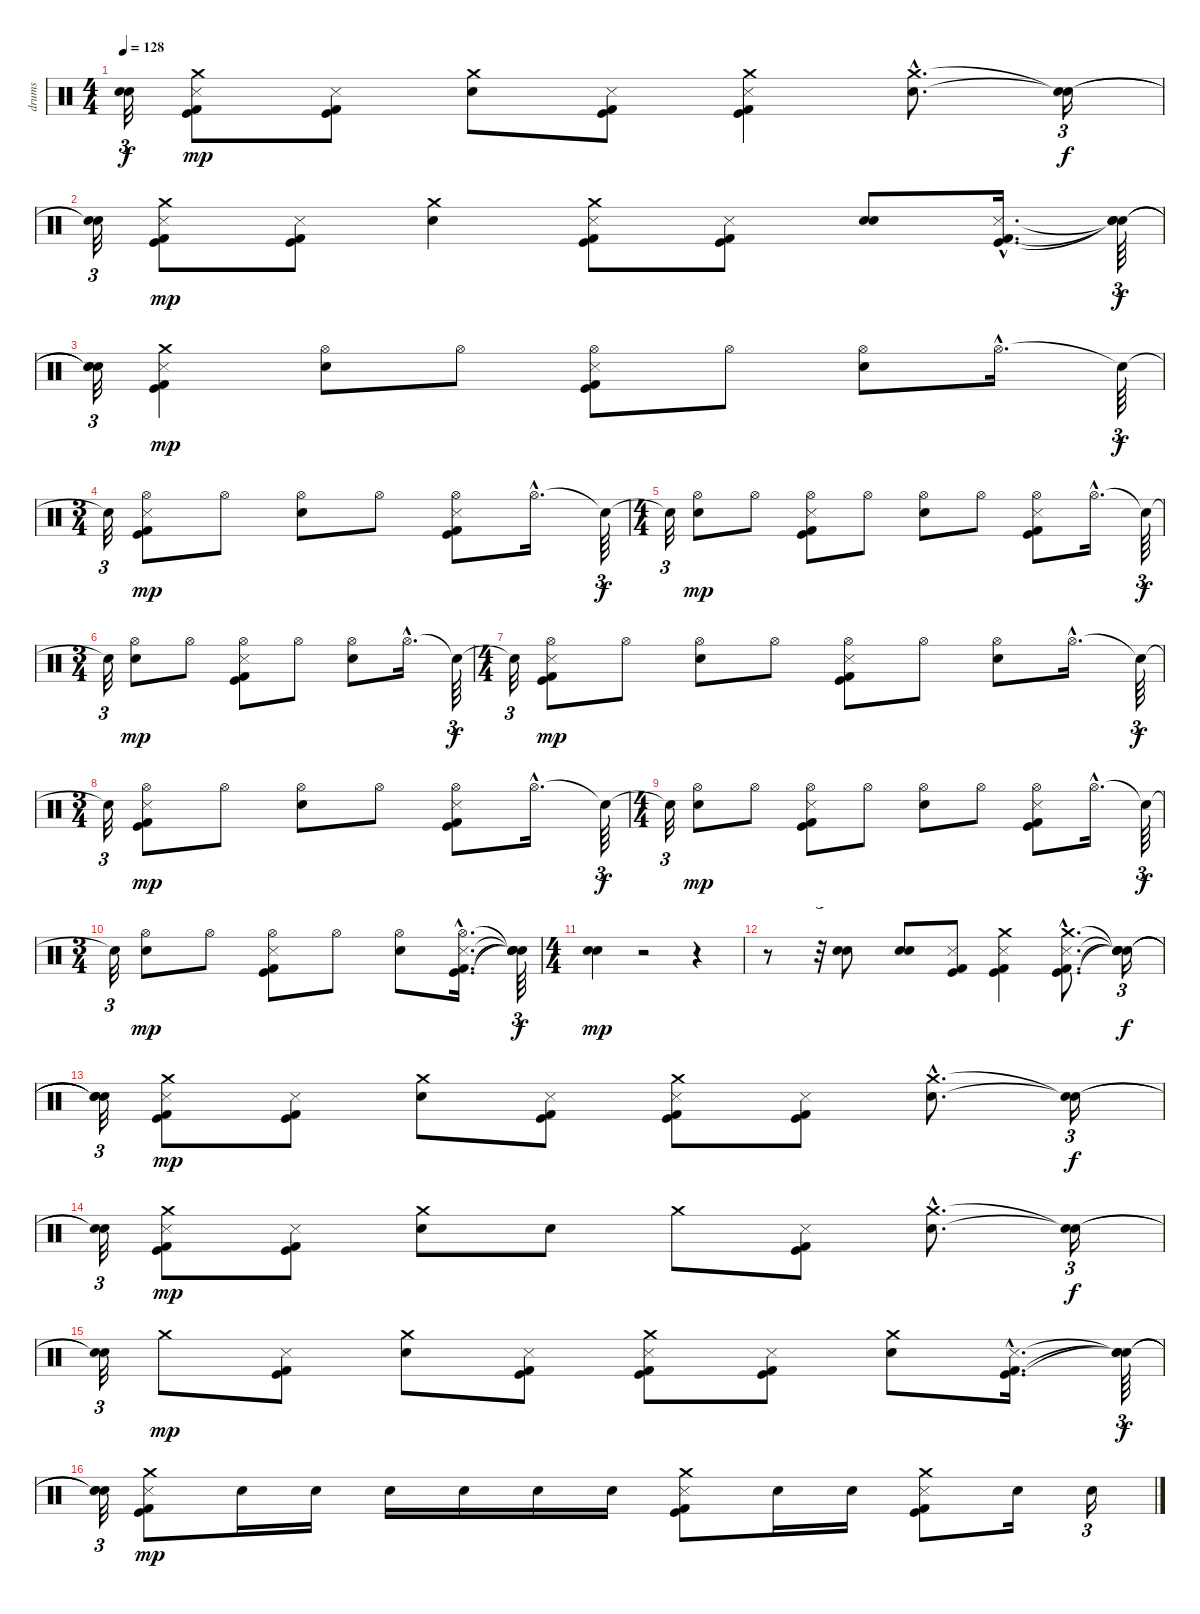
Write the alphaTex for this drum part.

\track ("drums" "drums") {instrument percussion}
\staff {score}
\articulation defaults
\ts (4 4)
\tempo 128
\clef neutral
\ks c
("Snare (hit)"{t} "Snare (hit)"{t}).32{tu (3 2) dy f} ("Crash medium (hit)" "Metronome (hit)" "Kick (hit)" "Kick (hit) 2").8{dy mp} ("Metronome (hit)" "Kick (hit)" "Kick (hit) 2").8 ("Snare (hit) 2" "Crash medium (hit)").8 ("Metronome (hit)" "Kick (hit)" "Kick (hit) 2").8 ("Crash medium (hit)" "Metronome (hit)" "Kick (hit)" "Kick (hit) 2").4 ("Snare (hit) 2"{hac} "Crash medium (hit)"{hac}).8{d} ("Snare (hit)"{t} "Snare (hit)"{t}).16{tu (3 2) dy f} |
("Snare (hit)"{t} "Snare (hit)"{t}).32{tu (3 2)} ("Crash medium (hit)" "Metronome (hit)" "Kick (hit)" "Kick (hit) 2").8{dy mp} ("Metronome (hit)" "Kick (hit)" "Kick (hit) 2").8 ("Snare (hit) 2" "Crash medium (hit)").4 ("Crash medium (hit)" "Metronome (hit)" "Kick (hit)" "Kick (hit) 2").8 ("Metronome (hit)" "Kick (hit)" "Kick (hit) 2").8 ("Snare (hit) 2" "Snare (hit) 2").8 ("Metronome (hit)"{hac} "Kick (hit)"{hac} "Kick (hit) 2"{hac}).16{d} ("Snare (hit)"{t} "Snare (hit)"{t} "Snare (hit)"{t}).64{tu (3 2) dy f} |
("Snare (hit)"{t} "Snare (hit)"{t} "Snare (hit)"{t}).32{tu (3 2)} ("Crash medium (hit)" "Metronome (hit)" "Kick (hit)" "Kick (hit) 2").4{dy mp} ("Snare (hit) 2" "Hi-Hat (open)").8 "Hi-Hat (open)".8 ("Hi-Hat (open)" "Metronome (hit)" "Kick (hit)" "Kick (hit) 2").8 "Hi-Hat (open)".8 ("Snare (hit) 2" "Hi-Hat (open)").8 "Hi-Hat (open)"{hac}.16{d} "Snare (hit)"{t}.64{tu (3 2) dy f} |
\ts (3 4)
"Snare (hit)"{t}.32{tu (3 2)} ("Hi-Hat (open)" "Metronome (hit)" "Kick (hit)" "Kick (hit) 2").8{dy mp} "Hi-Hat (open)".8 ("Snare (hit) 2" "Hi-Hat (open)").8 "Hi-Hat (open)".8 ("Hi-Hat (open)" "Metronome (hit)" "Kick (hit)" "Kick (hit) 2").8 "Hi-Hat (open)"{hac}.16{d} "Snare (hit)"{t}.64{tu (3 2) dy f} |
\ts (4 4)
"Snare (hit)"{t}.32{tu (3 2)} ("Snare (hit) 2" "Hi-Hat (open)").8{dy mp} "Hi-Hat (open)".8 ("Hi-Hat (open)" "Metronome (hit)" "Kick (hit)" "Kick (hit) 2").8 "Hi-Hat (open)".8 ("Snare (hit) 2" "Hi-Hat (open)").8 "Hi-Hat (open)".8 ("Hi-Hat (open)" "Metronome (hit)" "Kick (hit)" "Kick (hit) 2").8 "Hi-Hat (open)"{hac}.16{d} "Snare (hit)"{t}.64{tu (3 2) dy f} |
\ts (3 4)
"Snare (hit)"{t}.32{tu (3 2)} ("Snare (hit) 2" "Hi-Hat (open)").8{dy mp} "Hi-Hat (open)".8 ("Hi-Hat (open)" "Metronome (hit)" "Kick (hit)" "Kick (hit) 2").8 "Hi-Hat (open)".8 ("Snare (hit) 2" "Hi-Hat (open)").8 "Hi-Hat (open)"{hac}.16{d} "Snare (hit)"{t}.64{tu (3 2) dy f} |
\ts (4 4)
"Snare (hit)"{t}.32{tu (3 2)} ("Hi-Hat (open)" "Metronome (hit)" "Kick (hit)" "Kick (hit) 2").8{dy mp} "Hi-Hat (open)".8 ("Snare (hit) 2" "Hi-Hat (open)").8 "Hi-Hat (open)".8 ("Hi-Hat (open)" "Metronome (hit)" "Kick (hit)" "Kick (hit) 2").8 "Hi-Hat (open)".8 ("Snare (hit) 2" "Hi-Hat (open)").8 "Hi-Hat (open)"{hac}.16{d} "Snare (hit)"{t}.64{tu (3 2) dy f} |
\ts (3 4)
"Snare (hit)"{t}.32{tu (3 2)} ("Hi-Hat (open)" "Metronome (hit)" "Kick (hit)" "Kick (hit) 2").8{dy mp} "Hi-Hat (open)".8 ("Snare (hit) 2" "Hi-Hat (open)").8 "Hi-Hat (open)".8 ("Hi-Hat (open)" "Metronome (hit)" "Kick (hit)" "Kick (hit) 2").8 "Hi-Hat (open)"{hac}.16{d} "Snare (hit)"{t}.64{tu (3 2) dy f} |
\ts (4 4)
"Snare (hit)"{t}.32{tu (3 2)} ("Snare (hit) 2" "Hi-Hat (open)").8{dy mp} "Hi-Hat (open)".8 ("Hi-Hat (open)" "Metronome (hit)" "Kick (hit)" "Kick (hit) 2").8 "Hi-Hat (open)".8 ("Snare (hit) 2" "Hi-Hat (open)").8 "Hi-Hat (open)".8 ("Hi-Hat (open)" "Metronome (hit)" "Kick (hit)" "Kick (hit) 2").8 "Hi-Hat (open)"{hac}.16{d} "Snare (hit)"{t}.64{tu (3 2) dy f} |
\ts (3 4)
"Snare (hit)"{t}.32{tu (3 2)} ("Snare (hit) 2" "Hi-Hat (open)").8{dy mp} "Hi-Hat (open)".8 ("Hi-Hat (open)" "Metronome (hit)" "Kick (hit)" "Kick (hit) 2").8 "Hi-Hat (open)".8 ("Snare (hit) 2" "Hi-Hat (open)").8 ("Hi-Hat (open)"{hac} "Metronome (hit)"{hac} "Kick (hit)"{hac} "Kick (hit) 2"{hac}).16{d} ("Snare (hit)"{t} "Snare (hit)"{t} "Snare (hit)"{t} "Snare (hit)"{t}).64{tu (3 2) dy f} |
\ts (4 4)
("Snare (hit) 2" "Snare (hit) 2").4{dy mp} r.2 r.4 |
r.8 r.32{tu (3 2)} ("Snare (hit) 2" "Snare (hit) 2").8 ("Snare (hit) 2" "Snare (hit) 2").8 ("Metronome (hit)" "Kick (hit)" "Kick (hit) 2").8 ("Crash medium (hit)" "Metronome (hit)" "Kick (hit)" "Kick (hit) 2").4 ("Crash medium (hit)"{hac} "Metronome (hit)"{hac} "Kick (hit)"{hac} "Kick (hit) 2"{hac}).8{d} ("Snare (hit)"{t} "Snare (hit)"{t} "Snare (hit)"{t} "Snare (hit)"{t}).16{tu (3 2) dy f} |
("Snare (hit)"{t} "Snare (hit)"{t} "Snare (hit)"{t} "Snare (hit)"{t}).32{tu (3 2)} ("Crash medium (hit)" "Metronome (hit)" "Kick (hit)" "Kick (hit) 2").8{dy mp} ("Metronome (hit)" "Kick (hit)" "Kick (hit) 2").8 ("Snare (hit) 2" "Crash medium (hit)").8 ("Metronome (hit)" "Kick (hit)" "Kick (hit) 2").8 ("Crash medium (hit)" "Metronome (hit)" "Kick (hit)" "Kick (hit) 2").8 ("Metronome (hit)" "Kick (hit)" "Kick (hit) 2").8 ("Snare (hit) 2"{hac} "Crash medium (hit)"{hac}).8{d} ("Snare (hit)"{t} "Snare (hit)"{t}).16{tu (3 2) dy f} |
("Snare (hit)"{t} "Snare (hit)"{t}).32{tu (3 2)} ("Crash medium (hit)" "Metronome (hit)" "Kick (hit)" "Kick (hit) 2").8{dy mp} ("Metronome (hit)" "Kick (hit)" "Kick (hit) 2").8 ("Snare (hit) 2" "Crash medium (hit)").8 "Snare (hit) 2".8 "Crash medium (hit)".8 ("Metronome (hit)" "Kick (hit)" "Kick (hit) 2").8 ("Snare (hit) 2"{hac} "Crash medium (hit)"{hac}).8{d} ("Snare (hit)"{t} "Snare (hit)"{t}).16{tu (3 2) dy f} |
("Snare (hit)"{t} "Snare (hit)"{t}).32{tu (3 2)} "Crash medium (hit)".8{dy mp} ("Metronome (hit)" "Kick (hit)" "Kick (hit) 2").8 ("Snare (hit) 2" "Crash medium (hit)").8 ("Metronome (hit)" "Kick (hit)" "Kick (hit) 2").8 ("Crash medium (hit)" "Metronome (hit)" "Kick (hit)" "Kick (hit) 2").8 ("Metronome (hit)" "Kick (hit)" "Kick (hit) 2").8 ("Snare (hit) 2" "Crash medium (hit)").8 ("Metronome (hit)"{hac} "Kick (hit)"{hac} "Kick (hit) 2"{hac}).16{d} ("Snare (hit)"{t} "Snare (hit)"{t} "Snare (hit)"{t}).64{tu (3 2) dy f} |
("Snare (hit)"{t} "Snare (hit)"{t} "Snare (hit)"{t}).32{tu (3 2)} ("Crash medium (hit)" "Metronome (hit)" "Kick (hit)" "Kick (hit) 2").8{dy mp} "Snare (hit) 2".16 "Snare (hit) 2".16 "Snare (hit) 2".16 "Snare (hit) 2".16 "Snare (hit) 2".16 "Snare (hit) 2".16 ("Crash medium (hit)" "Metronome (hit)" "Kick (hit)" "Kick (hit) 2").8 "Snare (hit) 2".16 "Snare (hit) 2".16 ("Crash medium (hit)" "Metronome (hit)" "Kick (hit)" "Kick (hit) 2").8 "Snare (hit) 2".16 "Snare (hit) 2".16{tu (3 2)}
